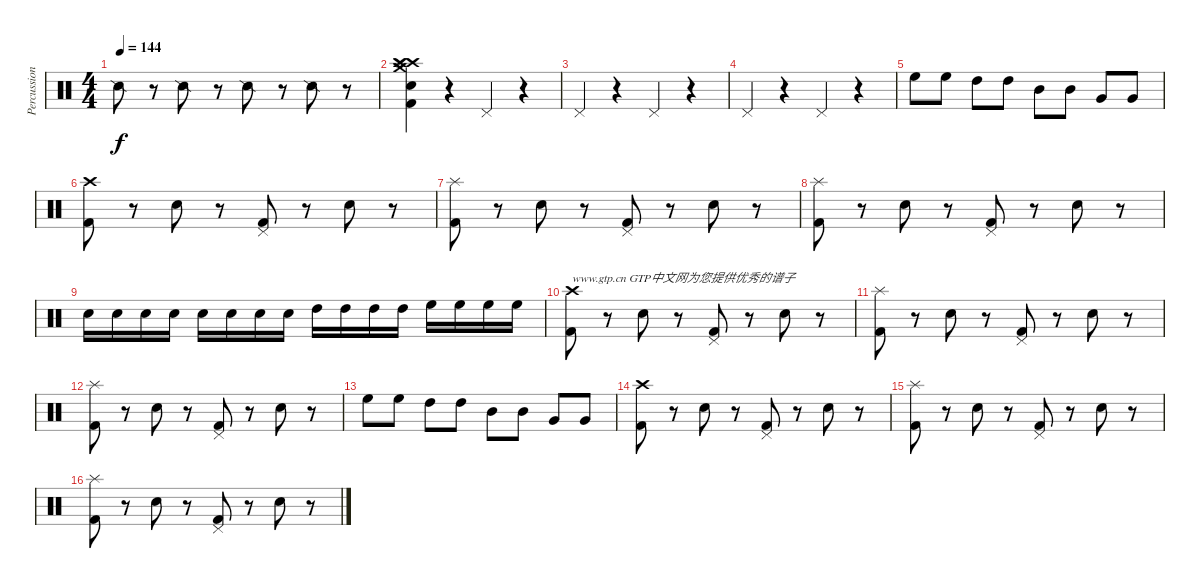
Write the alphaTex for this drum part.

\track ("Percussion" "Percussion") {instrument percussion}
\staff {score}
\articulation defaults
\ts (4 4)
\tempo 144
\clef neutral
\ks c "Snare (side stick) 2".8{dy f}
r.8 "Snare (side stick) 2".8 r.8 "Snare (side stick) 2".8 r.8 "Snare (side stick) 2".8 r.8 |
("Crash medium (hit)" "Crash high (hit)" "Kick (hit) 2" "Crash high (hit)" "Splash (hit)" "Snare (hit) 2").4 r.4 "Pedal Hi-Hat (hit)".4 r.4 |
"Pedal Hi-Hat (hit)".4 r.4 "Pedal Hi-Hat (hit)".4 r.4 |
"Pedal Hi-Hat (hit)".4 r.4 "Pedal Hi-Hat (hit)".4 r.4 |
"High Floor Tom (hit)".8 "High Floor Tom (hit)".8 "High Tom (hit)".8 "High Tom (hit)".8 "Mid Tom (hit)".8 "Mid Tom (hit)".8 "Very Low Tom (hit)".8 "Very Low Tom (hit)".8 |
("Crash high (hit)" "Kick (hit) 2").8 r.8 "Snare (hit) 2".8 r.8 ("Pedal Hi-Hat (hit)" "Kick (hit) 2").8 r.8 "Snare (hit) 2".8 r.8 |
("Kick (hit) 2" "Splash (hit)").8 r.8 "Snare (hit) 2".8 r.8 ("Pedal Hi-Hat (hit)" "Kick (hit) 2").8 r.8 "Snare (hit) 2".8 r.8 |
("Kick (hit) 2" "Splash (hit)").8 r.8 "Snare (hit) 2".8 r.8 ("Pedal Hi-Hat (hit)" "Kick (hit) 2").8 r.8 "Snare (hit) 2".8 r.8 |
"Electric Snare (hit)".16 "Electric Snare (hit)".16 "Electric Snare (hit)".16 "Electric Snare (hit)".16 "Snare (hit) 2".16 "Snare (hit) 2".16 "Snare (hit) 2".16 "Snare (hit) 2".16 "High Tom (hit)".16 "High Tom (hit)".16 "High Tom (hit)".16 "High Tom (hit)".16 "High Floor Tom (hit)".16 "High Floor Tom (hit)".16 "High Floor Tom (hit)".16 "High Floor Tom (hit)".16 |
("Crash high (hit)" "Kick (hit) 2").8{txt "www.gtp.cn GTP中文网为您提供优秀的谱子"} r.8 "Snare (hit) 2".8 r.8 ("Pedal Hi-Hat (hit)" "Kick (hit) 2").8 r.8 "Snare (hit) 2".8 r.8 |
("Kick (hit) 2" "Splash (hit)").8 r.8 "Snare (hit) 2".8 r.8 ("Pedal Hi-Hat (hit)" "Kick (hit) 2").8 r.8 "Snare (hit) 2".8 r.8 |
("Kick (hit) 2" "Splash (hit)").8 r.8 "Snare (hit) 2".8 r.8 ("Pedal Hi-Hat (hit)" "Kick (hit) 2").8 r.8 "Snare (hit) 2".8 r.8 |
"High Floor Tom (hit)".8 "High Floor Tom (hit)".8 "High Tom (hit)".8 "High Tom (hit)".8 "Mid Tom (hit)".8 "Mid Tom (hit)".8 "Very Low Tom (hit)".8 "Very Low Tom (hit)".8 |
("Crash high (hit)" "Kick (hit) 2").8 r.8 "Snare (hit) 2".8 r.8 ("Pedal Hi-Hat (hit)" "Kick (hit) 2").8 r.8 "Snare (hit) 2".8 r.8 |
("Kick (hit) 2" "Splash (hit)").8 r.8 "Snare (hit) 2".8 r.8 ("Pedal Hi-Hat (hit)" "Kick (hit) 2").8 r.8 "Snare (hit) 2".8 r.8 |
("Kick (hit) 2" "Splash (hit)").8 r.8 "Snare (hit) 2".8 r.8 ("Pedal Hi-Hat (hit)" "Kick (hit) 2").8 r.8 "Snare (hit) 2".8 r.8
